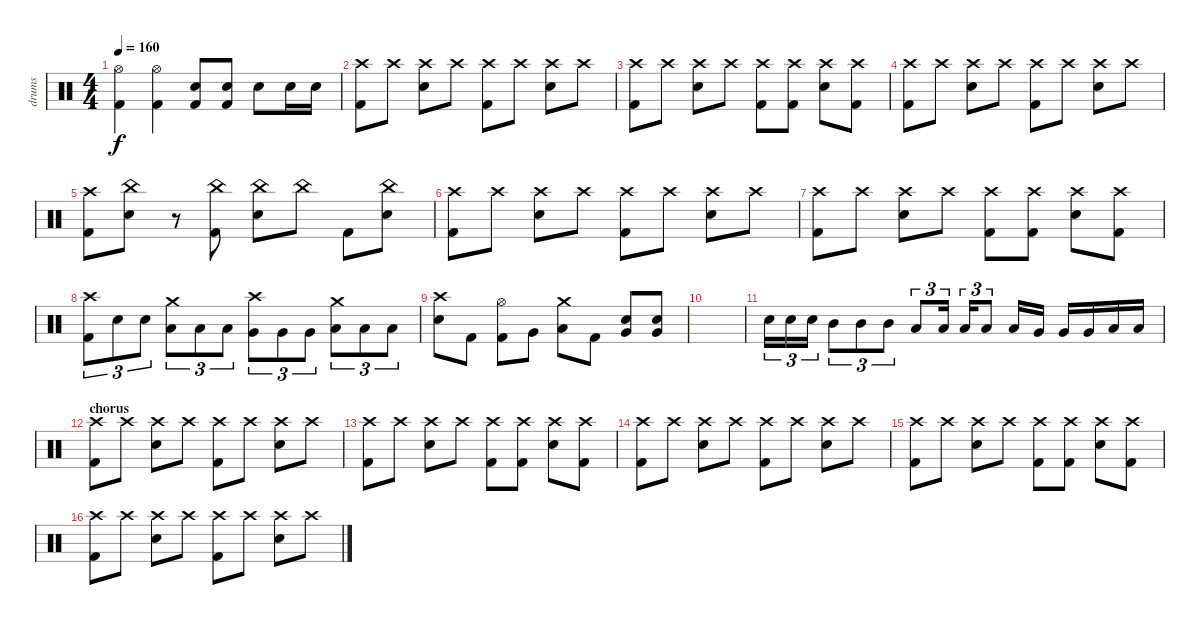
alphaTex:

\track ("drums" "drums") {instrument percussion}
\staff {score}
\articulation defaults
\ts (4 4)
\tempo 160
\clef neutral
\ks c
("Hi-Hat (open)" "Kick (hit) 2").4{dy f} ("Hi-Hat (open)" "Kick (hit) 2").4 ("Electric Snare (hit)" "Kick (hit) 2").8 ("Electric Snare (hit)" "Kick (hit) 2").8 "Electric Snare (hit)".8 "Electric Snare (hit)".16 "Electric Snare (hit)".16 |
("Crash high (hit)" "Kick (hit) 2").8 "Crash high (hit)".8 ("Crash high (hit)" "Electric Snare (hit)").8 "Crash high (hit)".8 ("Crash high (hit)" "Kick (hit) 2").8 "Crash high (hit)".8 ("Crash high (hit)" "Electric Snare (hit)").8 "Crash high (hit)".8 |
("Crash high (hit)" "Kick (hit) 2").8 "Crash high (hit)".8 ("Crash high (hit)" "Electric Snare (hit)").8 "Crash high (hit)".8 ("Crash high (hit)" "Kick (hit) 2").8 ("Crash high (hit)" "Kick (hit) 2").8 ("Crash high (hit)" "Electric Snare (hit)").8 ("Crash high (hit)" "Kick (hit) 2").8 |
("Crash high (hit)" "Kick (hit) 2").8 "Crash high (hit)".8 ("Crash high (hit)" "Electric Snare (hit)").8 "Crash high (hit)".8 ("Crash high (hit)" "Kick (hit) 2").8 "Crash high (hit)".8 ("Crash high (hit)" "Electric Snare (hit)").8 "Crash high (hit)".8 |
("Crash high (hit)" "Kick (hit) 2").8 ("China (hit)" "Electric Snare (hit)").8 r.8 ("China (hit)" "Kick (hit) 2").8 ("China (hit)" "Electric Snare (hit)").8 "China (hit)".8 "Kick (hit) 2".8 ("China (hit)" "Electric Snare (hit)").8 |
("Crash high (hit)" "Kick (hit) 2").8 "Crash high (hit)".8 ("Crash high (hit)" "Electric Snare (hit)").8 "Crash high (hit)".8 ("Crash high (hit)" "Kick (hit) 2").8 "Crash high (hit)".8 ("Crash high (hit)" "Electric Snare (hit)").8 "Crash high (hit)".8 |
("Crash high (hit)" "Kick (hit) 2").8 "Crash high (hit)".8 ("Crash high (hit)" "Electric Snare (hit)").8 "Crash high (hit)".8 ("Crash high (hit)" "Kick (hit) 2").8 ("Crash high (hit)" "Kick (hit) 2").8 ("Crash high (hit)" "Electric Snare (hit)").8 ("Crash high (hit)" "Kick (hit) 2").8 |
("Crash high (hit)" "Kick (hit) 2").8{tu (3 2)} "Electric Snare (hit)".8{tu (3 2)} "Electric Snare (hit)".8{tu (3 2)} ("Crash medium (hit)" "Low Tom (hit)").8{tu (3 2)} "Low Tom (hit)".8{tu (3 2)} "Low Tom (hit)".8{tu (3 2)} ("Crash high (hit)" "Very Low Tom (hit)").8{tu (3 2)} "Very Low Tom (hit)".8{tu (3 2)} "Very Low Tom (hit)".8{tu (3 2)} ("Crash medium (hit)" "Low Floor Tom (hit)").8{tu (3 2)} "Low Floor Tom (hit)".8{tu (3 2)} "Low Floor Tom (hit)".8{tu (3 2)} |
("Crash high (hit)" "Electric Snare (hit)").8 "Kick (hit) 2".8 ("Hi-Hat (open)" "Kick (hit) 2").8 "Very Low Tom (hit)".8 ("Crash medium (hit)" "Low Tom (hit)").8 "Kick (hit) 2".8 ("Very Low Tom (hit)" "Electric Snare (hit)").8 ("Very Low Tom (hit)" "Electric Snare (hit)").8 |
|
"Electric Snare (hit)".16{tu (3 2)} "Electric Snare (hit)".16{tu (3 2)} "Electric Snare (hit)".16{tu (3 2)} "Mid Tom (hit)".8{tu (3 2)} "Mid Tom (hit)".8{tu (3 2)} "Mid Tom (hit)".8{tu (3 2)} "Low Tom (hit)".8{tu (3 2)} "Low Tom (hit)".16{tu (3 2)} "Low Tom (hit)".16{tu (3 2)} "Low Tom (hit)".8{tu (3 2)} "Low Tom (hit)".16 "Very Low Tom (hit)".16 "Very Low Tom (hit)".16 "Very Low Tom (hit)".16 "Low Floor Tom (hit)".16 "Low Floor Tom (hit)".16 |
\section ("" "chorus")
("Crash high (hit)" "Kick (hit) 2").8 "Crash high (hit)".8 ("Crash high (hit)" "Electric Snare (hit)").8 "Crash high (hit)".8 ("Crash high (hit)" "Kick (hit) 2").8 "Crash high (hit)".8 ("Crash high (hit)" "Electric Snare (hit)").8 "Crash high (hit)".8 |
("Crash high (hit)" "Kick (hit) 2").8 "Crash high (hit)".8 ("Crash high (hit)" "Electric Snare (hit)").8 "Crash high (hit)".8 ("Crash high (hit)" "Kick (hit) 2").8 ("Crash high (hit)" "Kick (hit) 2").8 ("Crash high (hit)" "Electric Snare (hit)").8 ("Crash high (hit)" "Kick (hit) 2").8 |
("Crash high (hit)" "Kick (hit) 2").8 "Crash high (hit)".8 ("Crash high (hit)" "Electric Snare (hit)").8 "Crash high (hit)".8 ("Crash high (hit)" "Kick (hit) 2").8 "Crash high (hit)".8 ("Crash high (hit)" "Electric Snare (hit)").8 "Crash high (hit)".8 |
("Crash high (hit)" "Kick (hit) 2").8 "Crash high (hit)".8 ("Crash high (hit)" "Electric Snare (hit)").8 "Crash high (hit)".8 ("Crash high (hit)" "Kick (hit) 2").8 ("Crash high (hit)" "Kick (hit) 2").8 ("Crash high (hit)" "Electric Snare (hit)").8 ("Crash high (hit)" "Kick (hit) 2").8 |
("Crash high (hit)" "Kick (hit) 2").8 "Crash high (hit)".8 ("Crash high (hit)" "Electric Snare (hit)").8 "Crash high (hit)".8 ("Crash high (hit)" "Kick (hit) 2").8 "Crash high (hit)".8 ("Crash high (hit)" "Electric Snare (hit)").8 "Crash high (hit)".8
